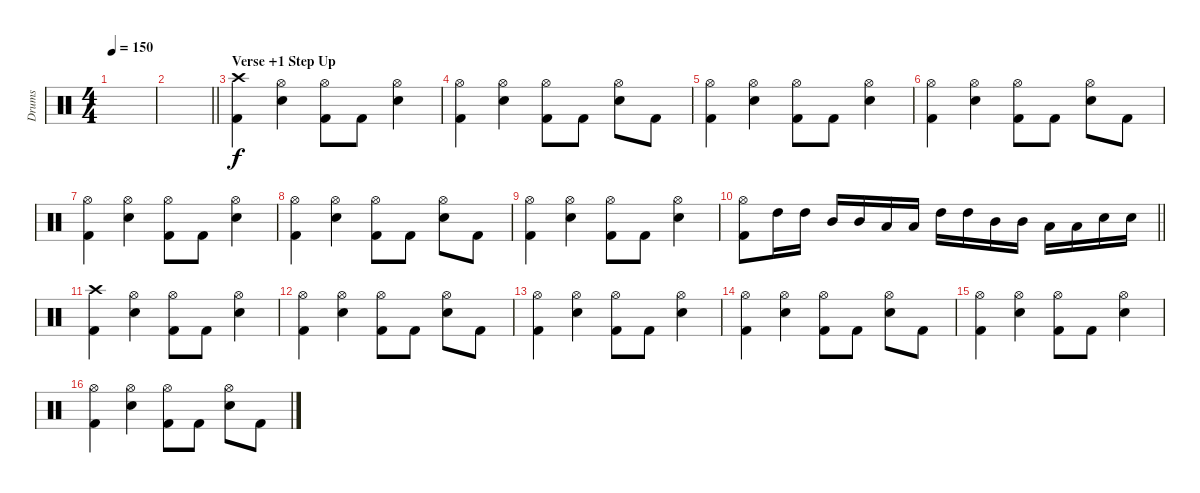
\track ("Drums" "Drums") {instrument percussion}
\staff {score}
\articulation defaults
\ts (4 4)
\tempo 150
\clef neutral
\ks c
|
\barLineRight lightlight
|
\section ("" "Verse +1 Step Up")
("Crash high (hit)" "Kick (hit) 2").4 ("Hi-Hat (open)" "Electric Snare (hit)").4 ("Hi-Hat (open)" "Kick (hit) 2").8 "Kick (hit) 2".8 ("Hi-Hat (open)" "Electric Snare (hit)").4 |
("Hi-Hat (open)" "Kick (hit) 2").4 ("Hi-Hat (open)" "Electric Snare (hit)").4 ("Hi-Hat (open)" "Kick (hit) 2").8 "Kick (hit) 2".8 ("Hi-Hat (open)" "Electric Snare (hit)").8 "Kick (hit) 2".8 |
("Hi-Hat (open)" "Kick (hit) 2").4 ("Hi-Hat (open)" "Electric Snare (hit)").4 ("Hi-Hat (open)" "Kick (hit) 2").8 "Kick (hit) 2".8 ("Hi-Hat (open)" "Electric Snare (hit)").4 |
("Hi-Hat (open)" "Kick (hit) 2").4 ("Hi-Hat (open)" "Electric Snare (hit)").4 ("Hi-Hat (open)" "Kick (hit) 2").8 "Kick (hit) 2".8 ("Hi-Hat (open)" "Electric Snare (hit)").8 "Kick (hit) 2".8 |
("Hi-Hat (open)" "Kick (hit) 2").4 ("Hi-Hat (open)" "Electric Snare (hit)").4 ("Hi-Hat (open)" "Kick (hit) 2").8 "Kick (hit) 2".8 ("Hi-Hat (open)" "Electric Snare (hit)").4 |
("Hi-Hat (open)" "Kick (hit) 2").4 ("Hi-Hat (open)" "Electric Snare (hit)").4 ("Hi-Hat (open)" "Kick (hit) 2").8 "Kick (hit) 2".8 ("Hi-Hat (open)" "Electric Snare (hit)").8 "Kick (hit) 2".8 |
("Hi-Hat (open)" "Kick (hit) 2").4 ("Hi-Hat (open)" "Electric Snare (hit)").4 ("Hi-Hat (open)" "Kick (hit) 2").8 "Kick (hit) 2".8 ("Hi-Hat (open)" "Electric Snare (hit)").4 |
\barLineRight lightlight
("Hi-Hat (open)" "Kick (hit) 2").8 "High Tom (hit)".16 "High Tom (hit)".16 "Mid Tom (hit)".16 "Mid Tom (hit)".16 "Low Tom (hit)".16 "Low Tom (hit)".16 "High Tom (hit)".16 "High Tom (hit)".16 "Mid Tom (hit)".16 "Mid Tom (hit)".16 "Low Tom (hit)".16 "Low Tom (hit)".16 "Electric Snare (hit)".16 "Electric Snare (hit)".16 |
("Crash high (hit)" "Kick (hit) 2").4 ("Hi-Hat (open)" "Electric Snare (hit)").4 ("Hi-Hat (open)" "Kick (hit) 2").8 "Kick (hit) 2".8 ("Hi-Hat (open)" "Electric Snare (hit)").4 |
("Hi-Hat (open)" "Kick (hit) 2").4 ("Hi-Hat (open)" "Electric Snare (hit)").4 ("Hi-Hat (open)" "Kick (hit) 2").8 "Kick (hit) 2".8 ("Hi-Hat (open)" "Electric Snare (hit)").8 "Kick (hit) 2".8 |
("Hi-Hat (open)" "Kick (hit) 2").4 ("Hi-Hat (open)" "Electric Snare (hit)").4 ("Hi-Hat (open)" "Kick (hit) 2").8 "Kick (hit) 2".8 ("Hi-Hat (open)" "Electric Snare (hit)").4 |
("Hi-Hat (open)" "Kick (hit) 2").4 ("Hi-Hat (open)" "Electric Snare (hit)").4 ("Hi-Hat (open)" "Kick (hit) 2").8 "Kick (hit) 2".8 ("Hi-Hat (open)" "Electric Snare (hit)").8 "Kick (hit) 2".8 |
("Hi-Hat (open)" "Kick (hit) 2").4 ("Hi-Hat (open)" "Electric Snare (hit)").4 ("Hi-Hat (open)" "Kick (hit) 2").8 "Kick (hit) 2".8 ("Hi-Hat (open)" "Electric Snare (hit)").4 |
("Hi-Hat (open)" "Kick (hit) 2").4 ("Hi-Hat (open)" "Electric Snare (hit)").4 ("Hi-Hat (open)" "Kick (hit) 2").8 "Kick (hit) 2".8 ("Hi-Hat (open)" "Electric Snare (hit)").8 "Kick (hit) 2".8
